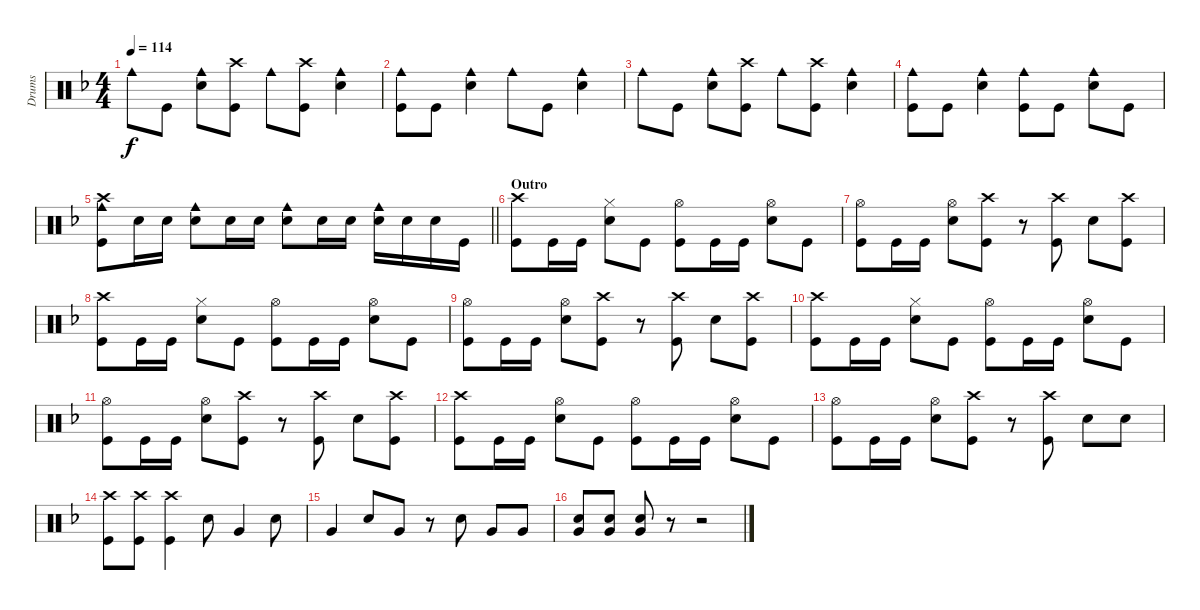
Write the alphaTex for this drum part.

\track ("Drums" "Drums") {instrument percussion}
\staff {score}
\articulation defaults
\ts (4 4)
\tempo 114
\clef neutral
\ks dminor "Cowbell medium (hit)".8{dy f} "Kick (hit)".8
("Cowbell medium (hit)" "Snare (hit) 2").8 ("Crash high (hit)" "Kick (hit)").8 "Cowbell medium (hit)".8 ("Crash high (hit)" "Kick (hit)").8 ("Cowbell medium (hit)" "Snare (hit) 2").4 |
("Cowbell medium (hit)" "Kick (hit)").8 "Kick (hit)".8 ("Cowbell medium (hit)" "Snare (hit) 2").4 "Cowbell medium (hit)".8 "Kick (hit)".8 ("Cowbell medium (hit)" "Snare (hit) 2").4 |
"Cowbell medium (hit)".8 "Kick (hit)".8 ("Cowbell medium (hit)" "Snare (hit) 2").8 ("Crash high (hit)" "Kick (hit)").8 "Cowbell medium (hit)".8 ("Crash high (hit)" "Kick (hit)").8 ("Cowbell medium (hit)" "Snare (hit) 2").4 |
("Cowbell medium (hit)" "Kick (hit)").8 "Kick (hit)".8 ("Cowbell medium (hit)" "Snare (hit) 2").4 ("Cowbell medium (hit)" "Kick (hit)").8 "Kick (hit)".8 ("Cowbell medium (hit)" "Snare (hit) 2").8 "Kick (hit)".8 |
\barLineRight lightlight
("Crash high (hit)" "Cowbell medium (hit)" "Kick (hit)").8 "Snare (hit) 2".16 "Snare (hit) 2".16 ("Cowbell medium (hit)" "Snare (hit) 2").8 "Snare (hit) 2".16 "Snare (hit) 2".16 ("Cowbell medium (hit)" "Snare (hit) 2").8 "Snare (hit) 2".16 "Snare (hit) 2".16 ("Cowbell medium (hit)" "Snare (hit) 2").16 "Snare (hit) 2".16 "Snare (hit) 2".16 "Kick (hit)".16 |
\section ("" "Outro")
("Crash high (hit)" "Kick (hit)").8 "Kick (hit)".16 "Kick (hit)".16 ("Hi-Hat (closed)" "Snare (hit) 2").8 "Kick (hit)".8 ("Hi-Hat (open)" "Kick (hit)").8 "Kick (hit)".16 "Kick (hit)".16 ("Hi-Hat (open)" "Snare (hit) 2").8 "Kick (hit)".8 |
("Hi-Hat (open)" "Kick (hit)").8 "Kick (hit)".16 "Kick (hit)".16 ("Hi-Hat (open)" "Snare (hit) 2").8 ("Crash high (hit)" "Kick (hit)").8 r.8 ("Crash high (hit)" "Kick (hit)").8 "Snare (hit) 2".8 ("Crash high (hit)" "Kick (hit)").8 |
("Crash high (hit)" "Kick (hit)").8 "Kick (hit)".16 "Kick (hit)".16 ("Hi-Hat (closed)" "Snare (hit) 2").8 "Kick (hit)".8 ("Hi-Hat (open)" "Kick (hit)").8 "Kick (hit)".16 "Kick (hit)".16 ("Hi-Hat (open)" "Snare (hit) 2").8 "Kick (hit)".8 |
("Hi-Hat (open)" "Kick (hit)").8 "Kick (hit)".16 "Kick (hit)".16 ("Hi-Hat (open)" "Snare (hit) 2").8 ("Crash high (hit)" "Kick (hit)").8 r.8 ("Crash high (hit)" "Kick (hit)").8 "Snare (hit) 2".8 ("Crash high (hit)" "Kick (hit)").8 |
("Crash high (hit)" "Kick (hit)").8 "Kick (hit)".16 "Kick (hit)".16 ("Hi-Hat (closed)" "Snare (hit) 2").8 "Kick (hit)".8 ("Hi-Hat (open)" "Kick (hit)").8 "Kick (hit)".16 "Kick (hit)".16 ("Hi-Hat (open)" "Snare (hit) 2").8 "Kick (hit)".8 |
("Hi-Hat (open)" "Kick (hit)").8 "Kick (hit)".16 "Kick (hit)".16 ("Hi-Hat (open)" "Snare (hit) 2").8 ("Crash high (hit)" "Kick (hit)").8 r.8 ("Crash high (hit)" "Kick (hit)").8 "Snare (hit) 2".8 ("Crash high (hit)" "Kick (hit)").8 |
("Crash high (hit)" "Kick (hit)").8 "Kick (hit)".16 "Kick (hit)".16 ("Hi-Hat (open)" "Snare (hit) 2").8 "Kick (hit)".8 ("Hi-Hat (open)" "Kick (hit)").8 "Kick (hit)".16 "Kick (hit)".16 ("Hi-Hat (open)" "Snare (hit) 2").8 "Kick (hit)".8 |
("Hi-Hat (open)" "Kick (hit)").8 "Kick (hit)".16 "Kick (hit)".16 ("Hi-Hat (open)" "Snare (hit) 2").8 ("Crash high (hit)" "Kick (hit)").8 r.8 ("Crash high (hit)" "Kick (hit)").8 "Snare (hit) 2".8 "Snare (hit) 2".8 |
("Crash high (hit)" "Kick (hit)").8 ("Crash high (hit)" "Kick (hit)").8 ("Crash high (hit)" "Kick (hit)").4 "Snare (hit) 2".8 "Very Low Tom (hit)".4 "Snare (hit) 2".8 |
"Very Low Tom (hit)".4 "Snare (hit) 2".8 "Very Low Tom (hit)".8 r.8 "Snare (hit) 2".8 "Very Low Tom (hit)".8 "Very Low Tom (hit)".8 |
("Snare (hit) 2" "Very Low Tom (hit)").8 ("Snare (hit) 2" "Very Low Tom (hit)").8 ("Snare (hit) 2" "Very Low Tom (hit)").8 r.8 r.2
